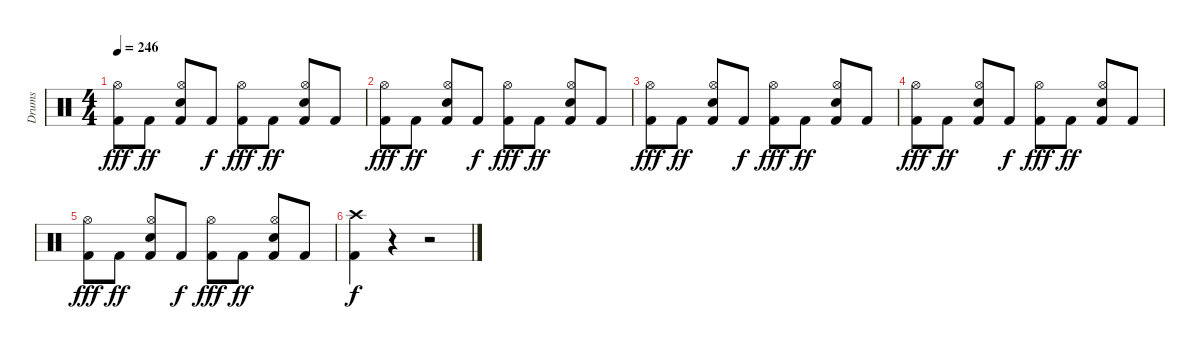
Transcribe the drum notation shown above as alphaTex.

\track ("Drums" "Drums") {instrument percussion}
\staff {score}
\articulation defaults
\ts (4 4)
\tempo 246
\clef neutral
\ks c
("Kick (hit) 2" "Hi-Hat (open)").8{dy fff volume 12} "Kick (hit) 2".8{dy ff} ("Kick (hit) 2" "Snare (hit) 2" "Hi-Hat (open)").8 "Kick (hit) 2".8{dy f} ("Kick (hit) 2" "Hi-Hat (open)").8{dy fff} "Kick (hit) 2".8{dy ff} ("Kick (hit) 2" "Snare (hit) 2" "Hi-Hat (open)").8 "Kick (hit) 2".8 |
("Kick (hit) 2" "Hi-Hat (open)").8{dy fff volume 12} "Kick (hit) 2".8{dy ff} ("Kick (hit) 2" "Snare (hit) 2" "Hi-Hat (open)").8 "Kick (hit) 2".8{dy f} ("Kick (hit) 2" "Hi-Hat (open)").8{dy fff} "Kick (hit) 2".8{dy ff} ("Kick (hit) 2" "Snare (hit) 2" "Hi-Hat (open)").8 "Kick (hit) 2".8 |
("Kick (hit) 2" "Hi-Hat (open)").8{dy fff volume 12} "Kick (hit) 2".8{dy ff} ("Kick (hit) 2" "Snare (hit) 2" "Hi-Hat (open)").8 "Kick (hit) 2".8{dy f} ("Kick (hit) 2" "Hi-Hat (open)").8{dy fff} "Kick (hit) 2".8{dy ff} ("Kick (hit) 2" "Snare (hit) 2" "Hi-Hat (open)").8 "Kick (hit) 2".8 |
("Kick (hit) 2" "Hi-Hat (open)").8{dy fff volume 12} "Kick (hit) 2".8{dy ff} ("Kick (hit) 2" "Snare (hit) 2" "Hi-Hat (open)").8 "Kick (hit) 2".8{dy f} ("Kick (hit) 2" "Hi-Hat (open)").8{dy fff} "Kick (hit) 2".8{dy ff} ("Kick (hit) 2" "Snare (hit) 2" "Hi-Hat (open)").8 "Kick (hit) 2".8 |
("Kick (hit) 2" "Hi-Hat (open)").8{dy fff volume 12} "Kick (hit) 2".8{dy ff} ("Kick (hit) 2" "Snare (hit) 2" "Hi-Hat (open)").8 "Kick (hit) 2".8{dy f} ("Kick (hit) 2" "Hi-Hat (open)").8{dy fff} "Kick (hit) 2".8{dy ff} ("Kick (hit) 2" "Snare (hit) 2" "Hi-Hat (open)").8 "Kick (hit) 2".8 |
("Crash high (hit)" "Kick (hit) 2").4{dy f} r.4 r.2
